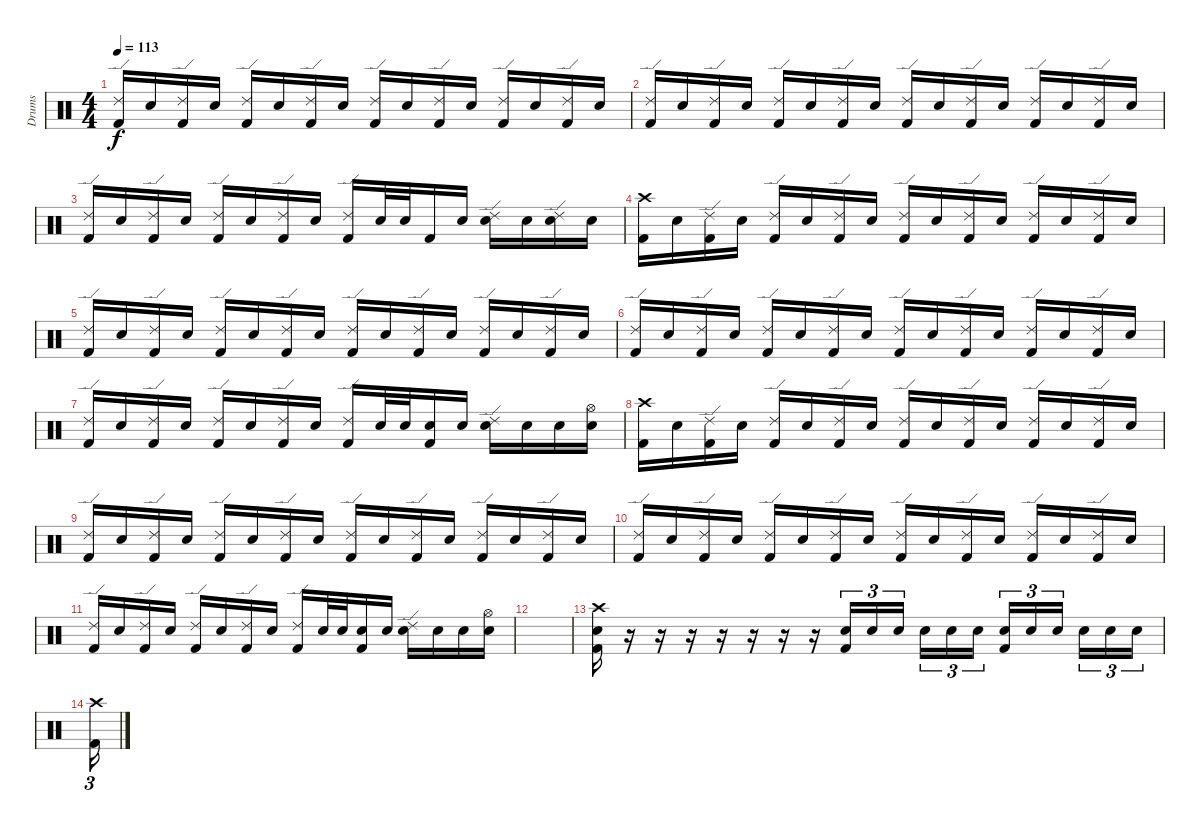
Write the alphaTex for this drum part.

\track ("Drums" "Drums") {instrument percussion}
\staff {score}
\articulation defaults
\ts (4 4)
\tempo 113
\clef neutral
\ks c
("Kick (hit) 2" "Ride (edge) 2").16{dy f} "Electric Snare (hit)".16 ("Kick (hit) 2" "Ride (edge) 2").16 "Electric Snare (hit)".16 ("Kick (hit) 2" "Ride (edge) 2").16 "Electric Snare (hit)".16 ("Kick (hit) 2" "Ride (edge) 2").16 "Electric Snare (hit)".16 ("Kick (hit) 2" "Ride (edge) 2").16 "Electric Snare (hit)".16 ("Kick (hit) 2" "Ride (edge) 2").16 "Electric Snare (hit)".16 ("Kick (hit) 2" "Ride (edge) 2").16 "Electric Snare (hit)".16 ("Kick (hit) 2" "Ride (edge) 2").16 "Electric Snare (hit)".16 |
("Kick (hit) 2" "Ride (edge) 2").16 "Electric Snare (hit)".16 ("Kick (hit) 2" "Ride (edge) 2").16 "Electric Snare (hit)".16 ("Kick (hit) 2" "Ride (edge) 2").16 "Electric Snare (hit)".16 ("Kick (hit) 2" "Ride (edge) 2").16 "Electric Snare (hit)".16 ("Kick (hit) 2" "Ride (edge) 2").16 "Electric Snare (hit)".16 ("Kick (hit) 2" "Ride (edge) 2").16 "Electric Snare (hit)".16 ("Kick (hit) 2" "Ride (edge) 2").16 "Electric Snare (hit)".16 ("Kick (hit) 2" "Ride (edge) 2").16 "Electric Snare (hit)".16 |
("Kick (hit) 2" "Ride (edge) 2").16 "Electric Snare (hit)".16 ("Kick (hit) 2" "Ride (edge) 2").16 "Electric Snare (hit)".16 ("Kick (hit) 2" "Ride (edge) 2").16 "Electric Snare (hit)".16 ("Kick (hit) 2" "Ride (edge) 2").16 "Electric Snare (hit)".16 ("Kick (hit) 2" "Ride (edge) 2").16 "Electric Snare (hit)".32 "Electric Snare (hit)".32 "Kick (hit) 2".16 "Electric Snare (hit)".16 ("Electric Snare (hit)" "Ride (edge) 2").16 "Electric Snare (hit)".16 ("Electric Snare (hit)" "Ride (edge) 2").16 "Electric Snare (hit)".16 |
("Kick (hit) 2" "Crash high (hit)").16 "Electric Snare (hit)".16 ("Kick (hit) 2" "Ride (edge) 2").16 "Electric Snare (hit)".16 ("Kick (hit) 2" "Ride (edge) 2").16 "Electric Snare (hit)".16 ("Kick (hit) 2" "Ride (edge) 2").16 "Electric Snare (hit)".16 ("Kick (hit) 2" "Ride (edge) 2").16 "Electric Snare (hit)".16 ("Kick (hit) 2" "Ride (edge) 2").16 "Electric Snare (hit)".16 ("Kick (hit) 2" "Ride (edge) 2").16 "Electric Snare (hit)".16 ("Kick (hit) 2" "Ride (edge) 2").16 "Electric Snare (hit)".16 |
("Kick (hit) 2" "Ride (edge) 2").16 "Electric Snare (hit)".16 ("Kick (hit) 2" "Ride (edge) 2").16 "Electric Snare (hit)".16 ("Kick (hit) 2" "Ride (edge) 2").16 "Electric Snare (hit)".16 ("Kick (hit) 2" "Ride (edge) 2").16 "Electric Snare (hit)".16 ("Kick (hit) 2" "Ride (edge) 2").16 "Electric Snare (hit)".16 ("Kick (hit) 2" "Ride (edge) 2").16 "Electric Snare (hit)".16 ("Kick (hit) 2" "Ride (edge) 2").16 "Electric Snare (hit)".16 ("Kick (hit) 2" "Ride (edge) 2").16 "Electric Snare (hit)".16 |
("Kick (hit) 2" "Ride (edge) 2").16 "Electric Snare (hit)".16 ("Kick (hit) 2" "Ride (edge) 2").16 "Electric Snare (hit)".16 ("Kick (hit) 2" "Ride (edge) 2").16 "Electric Snare (hit)".16 ("Kick (hit) 2" "Ride (edge) 2").16 "Electric Snare (hit)".16 ("Kick (hit) 2" "Ride (edge) 2").16 "Electric Snare (hit)".16 ("Kick (hit) 2" "Ride (edge) 2").16 "Electric Snare (hit)".16 ("Kick (hit) 2" "Ride (edge) 2").16 "Electric Snare (hit)".16 ("Kick (hit) 2" "Ride (edge) 2").16 "Electric Snare (hit)".16 |
("Kick (hit) 2" "Ride (edge) 2").16 "Electric Snare (hit)".16 ("Kick (hit) 2" "Ride (edge) 2").16 "Electric Snare (hit)".16 ("Kick (hit) 2" "Ride (edge) 2").16 "Electric Snare (hit)".16 ("Kick (hit) 2" "Ride (edge) 2").16 "Electric Snare (hit)".16 ("Kick (hit) 2" "Ride (edge) 2").16 "Electric Snare (hit)".32 "Electric Snare (hit)".32 ("Kick (hit) 2" "Electric Snare (hit)").16 "Electric Snare (hit)".16 ("Electric Snare (hit)" "Ride (edge) 2").16 "Electric Snare (hit)".16 "Electric Snare (hit)".16 ("Electric Snare (hit)" "Hi-Hat (open)").16 |
("Kick (hit) 2" "Crash high (hit)").16 "Electric Snare (hit)".16 ("Kick (hit) 2" "Ride (edge) 2").16 "Electric Snare (hit)".16 ("Kick (hit) 2" "Ride (edge) 2").16 "Electric Snare (hit)".16 ("Kick (hit) 2" "Ride (edge) 2").16 "Electric Snare (hit)".16 ("Kick (hit) 2" "Ride (edge) 2").16 "Electric Snare (hit)".16 ("Kick (hit) 2" "Ride (edge) 2").16 "Electric Snare (hit)".16 ("Kick (hit) 2" "Ride (edge) 2").16 "Electric Snare (hit)".16 ("Kick (hit) 2" "Ride (edge) 2").16 "Electric Snare (hit)".16 |
("Kick (hit) 2" "Ride (edge) 2").16 "Electric Snare (hit)".16 ("Kick (hit) 2" "Ride (edge) 2").16 "Electric Snare (hit)".16 ("Kick (hit) 2" "Ride (edge) 2").16 "Electric Snare (hit)".16 ("Kick (hit) 2" "Ride (edge) 2").16 "Electric Snare (hit)".16 ("Kick (hit) 2" "Ride (edge) 2").16 "Electric Snare (hit)".16 ("Kick (hit) 2" "Ride (edge) 2").16 "Electric Snare (hit)".16 ("Kick (hit) 2" "Ride (edge) 2").16 "Electric Snare (hit)".16 ("Kick (hit) 2" "Ride (edge) 2").16 "Electric Snare (hit)".16 |
("Kick (hit) 2" "Ride (edge) 2").16 "Electric Snare (hit)".16 ("Kick (hit) 2" "Ride (edge) 2").16 "Electric Snare (hit)".16 ("Kick (hit) 2" "Ride (edge) 2").16 "Electric Snare (hit)".16 ("Kick (hit) 2" "Ride (edge) 2").16 "Electric Snare (hit)".16 ("Kick (hit) 2" "Ride (edge) 2").16 "Electric Snare (hit)".16 ("Kick (hit) 2" "Ride (edge) 2").16 "Electric Snare (hit)".16 ("Kick (hit) 2" "Ride (edge) 2").16 "Electric Snare (hit)".16 ("Kick (hit) 2" "Ride (edge) 2").16 "Electric Snare (hit)".16 |
("Kick (hit) 2" "Ride (edge) 2").16 "Electric Snare (hit)".16 ("Kick (hit) 2" "Ride (edge) 2").16 "Electric Snare (hit)".16 ("Kick (hit) 2" "Ride (edge) 2").16 "Electric Snare (hit)".16 ("Kick (hit) 2" "Ride (edge) 2").16 "Electric Snare (hit)".16 ("Kick (hit) 2" "Ride (edge) 2").16 "Electric Snare (hit)".32 "Electric Snare (hit)".32 ("Kick (hit) 2" "Electric Snare (hit)").16 "Electric Snare (hit)".16 ("Electric Snare (hit)" "Ride (edge) 2").16 "Electric Snare (hit)".16 "Electric Snare (hit)".16 ("Electric Snare (hit)" "Hi-Hat (open)").16 |
|
("Kick (hit) 2" "Electric Snare (hit)" "Crash high (hit)").16 r.16 r.16 r.16 r.16 r.16 r.16 r.16 ("Electric Snare (hit)" "Kick (hit) 2").16{tu (3 2)} "Electric Snare (hit)".16{tu (3 2)} "Electric Snare (hit)".16{tu (3 2)} "Electric Snare (hit)".16{tu (3 2)} "Electric Snare (hit)".16{tu (3 2)} "Electric Snare (hit)".16{tu (3 2)} ("Electric Snare (hit)" "Kick (hit) 2").16{tu (3 2)} "Electric Snare (hit)".16{tu (3 2)} "Electric Snare (hit)".16{tu (3 2)} "Electric Snare (hit)".16{tu (3 2)} "Electric Snare (hit)".16{tu (3 2)} "Electric Snare (hit)".16{tu (3 2)} |
("Kick (hit) 2" "Crash high (hit)").16{tu (3 2)}
